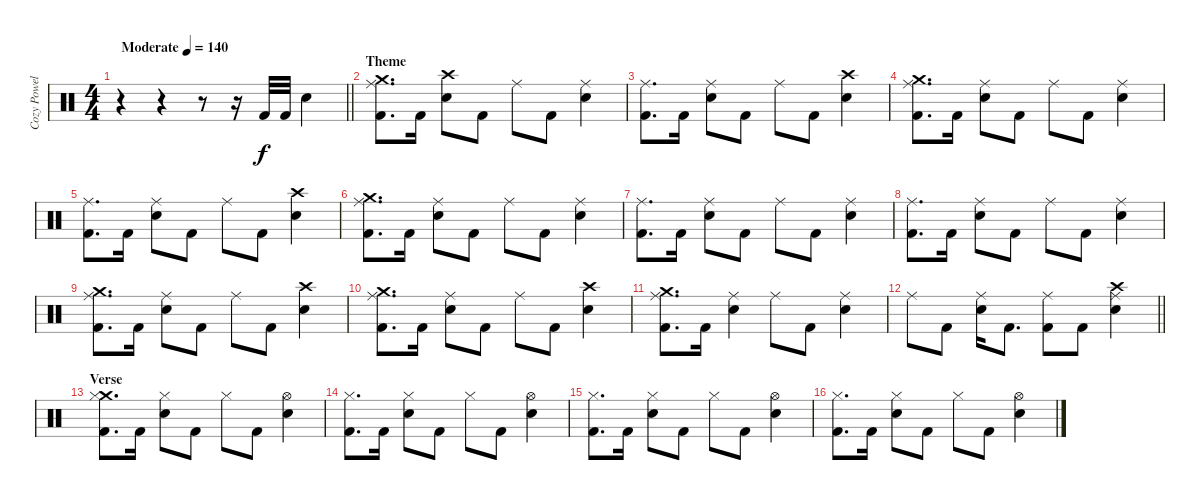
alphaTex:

\track ("Cozy Powell" "Cozy Powel") {instrument percussion}
\staff {score}
\articulation defaults
\ts (4 4)
\tempo (140 "Moderate")
\clef neutral
\barLineRight lightlight
\ks c
r.4{dy f} r.4 r.8 r.16 "Kick (hit) 2".32 "Kick (hit) 2".32 "Snare (hit) 2".4 |
\section ("" "Theme")
("Crash medium (hit)" "Ride (middle)" "Kick (hit) 2").8{d} "Kick (hit) 2".16 ("Crash high (hit)" "Snare (hit) 2").8 "Kick (hit) 2".8 "Ride (middle)".8 "Kick (hit) 2".8 ("Ride (middle)" "Snare (hit) 2").4 |
("Ride (middle)" "Kick (hit) 2").8{d} "Kick (hit) 2".16 ("Ride (middle)" "Snare (hit) 2").8 "Kick (hit) 2".8 "Ride (middle)".8 "Kick (hit) 2".8 ("Crash high (hit)" "Snare (hit) 2").4 |
("Crash medium (hit)" "Ride (middle)" "Kick (hit) 2").8{d} "Kick (hit) 2".16 ("Ride (middle)" "Snare (hit) 2").8 "Kick (hit) 2".8 "Ride (middle)".8 "Kick (hit) 2".8 ("Ride (middle)" "Snare (hit) 2").4 |
("Ride (middle)" "Kick (hit) 2").8{d} "Kick (hit) 2".16 ("Ride (middle)" "Snare (hit) 2").8 "Kick (hit) 2".8 "Ride (middle)".8 "Kick (hit) 2".8 ("Crash high (hit)" "Snare (hit) 2").4 |
("Crash medium (hit)" "Ride (middle)" "Kick (hit) 2").8{d} "Kick (hit) 2".16 ("Ride (middle)" "Snare (hit) 2").8 "Kick (hit) 2".8 "Ride (middle)".8 "Kick (hit) 2".8 ("Ride (middle)" "Snare (hit) 2").4 |
("Ride (middle)" "Kick (hit) 2").8{d} "Kick (hit) 2".16 ("Ride (middle)" "Snare (hit) 2").8 "Kick (hit) 2".8 "Ride (middle)".8 "Kick (hit) 2".8 ("Ride (middle)" "Snare (hit) 2").4 |
("Ride (middle)" "Kick (hit) 2").8{d} "Kick (hit) 2".16 ("Ride (middle)" "Snare (hit) 2").8 "Kick (hit) 2".8 "Ride (middle)".8 "Kick (hit) 2".8 ("Ride (middle)" "Snare (hit) 2").4 |
("Crash medium (hit)" "Ride (middle)" "Kick (hit) 2").8{d} "Kick (hit) 2".16 ("Ride (middle)" "Snare (hit) 2").8 "Kick (hit) 2".8 "Ride (middle)".8 "Kick (hit) 2".8 ("Crash high (hit)" "Snare (hit) 2").4 |
("Crash medium (hit)" "Ride (middle)" "Kick (hit) 2").8{d} "Kick (hit) 2".16 ("Ride (middle)" "Snare (hit) 2").8 "Kick (hit) 2".8 "Ride (middle)".8 "Kick (hit) 2".8 ("Crash high (hit)" "Snare (hit) 2").4 |
("Crash medium (hit)" "Ride (middle)" "Kick (hit) 2").8{d} "Kick (hit) 2".16 ("Ride (middle)" "Snare (hit) 2").4 "Ride (middle)".8 "Kick (hit) 2".8 ("Ride (middle)" "Snare (hit) 2").4 |
\barLineRight lightlight "Ride (middle)".8 "Kick (hit) 2".8
("Ride (middle)" "Snare (hit) 2").16 "Kick (hit) 2".8{d} ("Ride (middle)" "Kick (hit) 2").8 "Kick (hit) 2".8 ("Crash high (hit)" "Ride (middle)" "Snare (hit) 2").4 |
\section ("" "Verse")
("Crash medium (hit)" "Hi-Hat (closed)" "Kick (hit) 2").8{d} "Kick (hit) 2".16 ("Hi-Hat (closed)" "Snare (hit) 2").8 "Kick (hit) 2".8 "Hi-Hat (closed)".8 "Kick (hit) 2".8 ("Hi-Hat (open)" "Snare (hit) 2").4 |
("Hi-Hat (closed)" "Kick (hit) 2").8{d} "Kick (hit) 2".16 ("Hi-Hat (closed)" "Snare (hit) 2").8 "Kick (hit) 2".8 "Hi-Hat (closed)".8 "Kick (hit) 2".8 ("Hi-Hat (open)" "Snare (hit) 2").4 |
("Hi-Hat (closed)" "Kick (hit) 2").8{d} "Kick (hit) 2".16 ("Hi-Hat (closed)" "Snare (hit) 2").8 "Kick (hit) 2".8 "Hi-Hat (closed)".8 "Kick (hit) 2".8 ("Hi-Hat (open)" "Snare (hit) 2").4 |
("Hi-Hat (closed)" "Kick (hit) 2").8{d} "Kick (hit) 2".16 ("Hi-Hat (closed)" "Snare (hit) 2").8 "Kick (hit) 2".8 "Hi-Hat (closed)".8 "Kick (hit) 2".8 ("Hi-Hat (open)" "Snare (hit) 2").4
